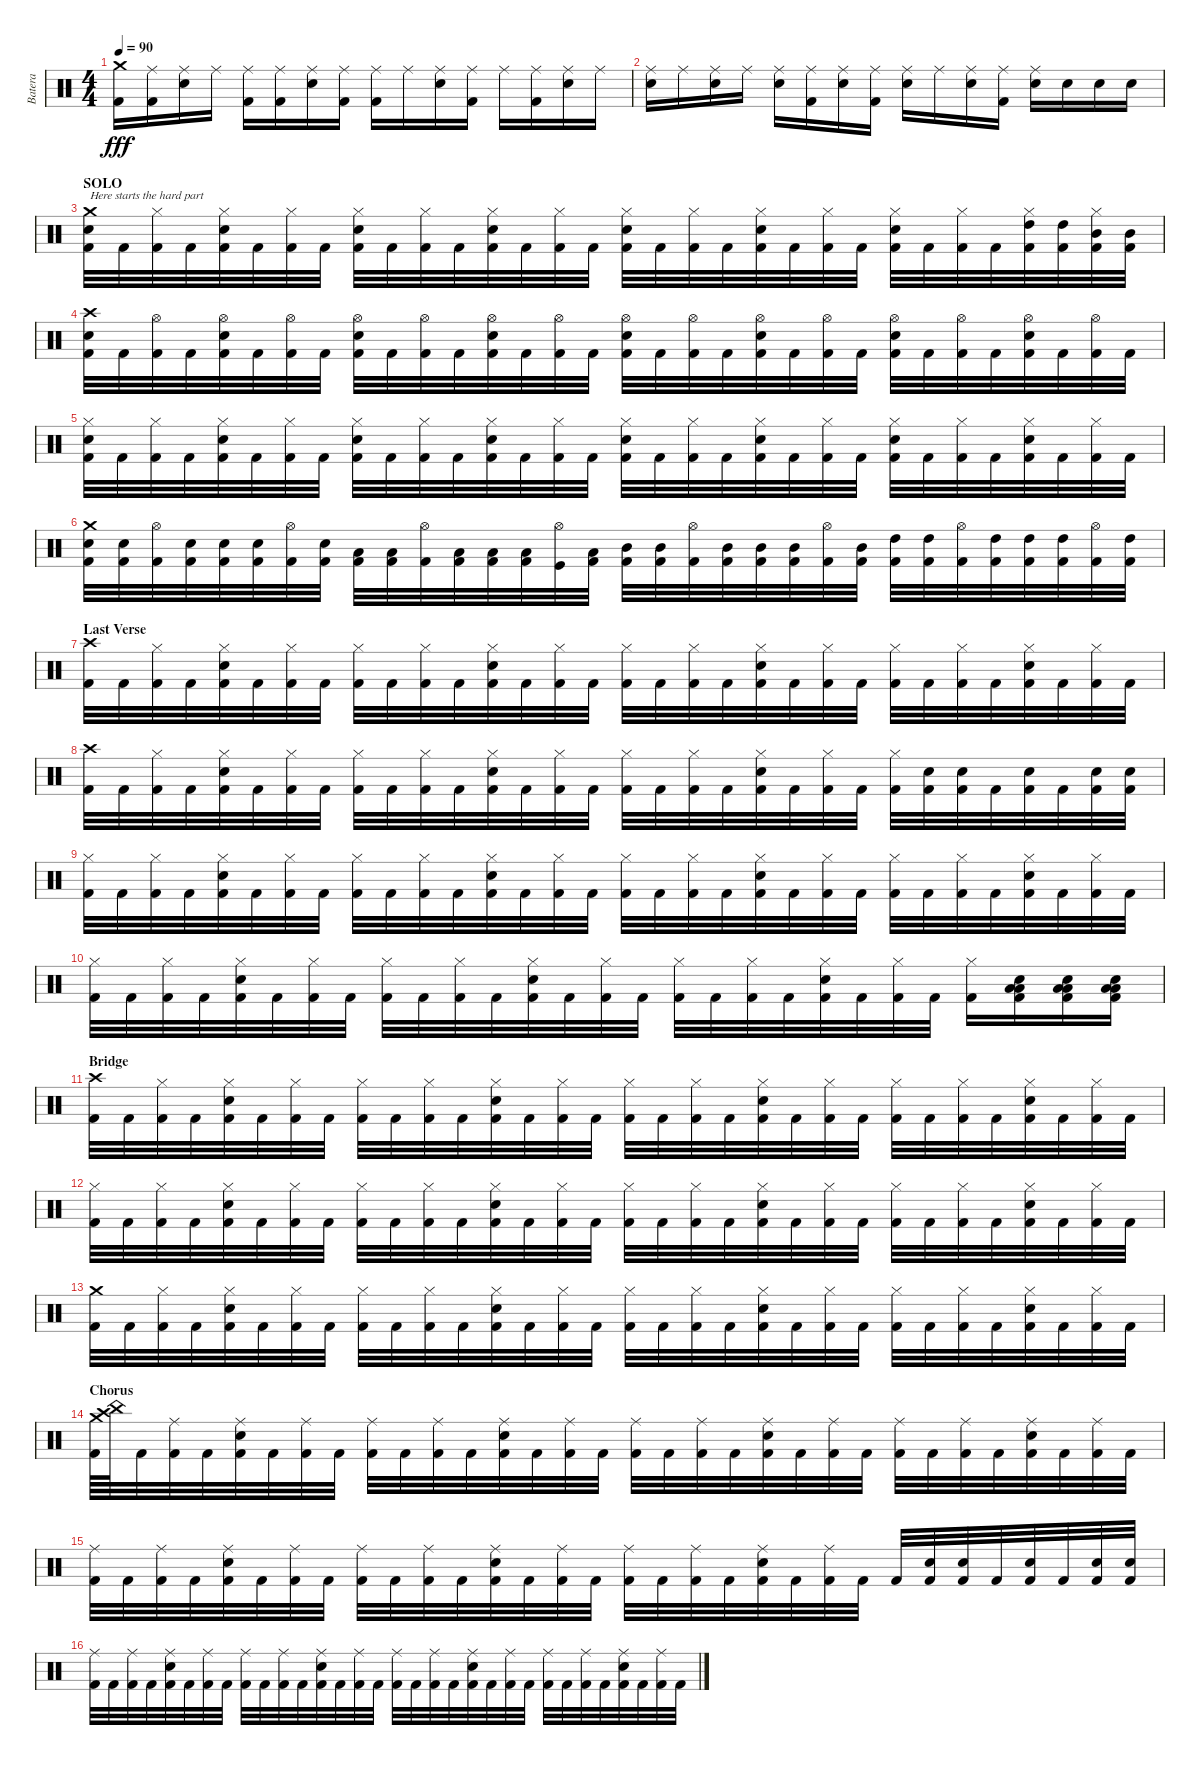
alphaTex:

\track ("Batera" "Batera") {instrument percussion}
\staff {score}
\articulation defaults
\ts (4 4)
\tempo 90
\clef neutral
\ks c
("Crash medium (hit)" "Kick (hit) 2").16{dy fff} ("Kick (hit) 2" "Ride (middle)").16 ("Snare (hit) 2" "Ride (middle)").16 "Ride (middle)".16 ("Kick (hit) 2" "Ride (middle)").16 ("Kick (hit) 2" "Ride (middle)").16 ("Snare (hit) 2" "Ride (middle)").16 ("Kick (hit) 2" "Ride (middle)").16 ("Kick (hit) 2" "Ride (middle)").16 "Ride (middle)".16 ("Snare (hit) 2" "Ride (middle)").16 ("Kick (hit) 2" "Ride (middle)").16 "Ride (middle)".16 ("Kick (hit) 2" "Ride (middle)").16 ("Snare (hit) 2" "Ride (middle)").16 "Ride (middle)".16 |
("Snare (hit) 2" "Ride (middle)").16 "Ride (middle)".16 ("Snare (hit) 2" "Ride (middle)").16 "Ride (middle)".16 ("Snare (hit) 2" "Ride (middle)").16 ("Kick (hit) 2" "Ride (middle)").16 ("Snare (hit) 2" "Ride (middle)").16 ("Kick (hit) 2" "Ride (middle)").16 ("Snare (hit) 2" "Ride (middle)").16 "Ride (middle)".16 ("Snare (hit) 2" "Ride (middle)").16 ("Kick (hit) 2" "Ride (middle)").16 ("Snare (hit) 2" "Ride (middle)").16 "Snare (hit) 2".16 "Snare (hit) 2".16 "Snare (hit) 2".16 |
\section ("" "SOLO")
("Crash medium (hit)" "Snare (hit) 2" "Kick (hit) 2").32{txt "Here starts the hard part"} "Kick (hit) 2".32 ("Kick (hit) 2" "Hi-Hat (closed)").32 "Kick (hit) 2".32 ("Snare (hit) 2" "Kick (hit) 2" "Hi-Hat (closed)").32 "Kick (hit) 2".32 ("Kick (hit) 2" "Hi-Hat (closed)").32 "Kick (hit) 2".32 ("Snare (hit) 2" "Kick (hit) 2" "Hi-Hat (closed)").32 "Kick (hit) 2".32 ("Kick (hit) 2" "Hi-Hat (closed)").32 "Kick (hit) 2".32 ("Snare (hit) 2" "Kick (hit) 2" "Hi-Hat (closed)").32 "Kick (hit) 2".32 ("Kick (hit) 2" "Hi-Hat (closed)").32 "Kick (hit) 2".32 ("Snare (hit) 2" "Kick (hit) 2" "Hi-Hat (closed)").32 "Kick (hit) 2".32 ("Kick (hit) 2" "Hi-Hat (closed)").32 "Kick (hit) 2".32 ("Snare (hit) 2" "Kick (hit) 2" "Hi-Hat (closed)").32 "Kick (hit) 2".32 ("Kick (hit) 2" "Hi-Hat (closed)").32 "Kick (hit) 2".32 ("Snare (hit) 2" "Kick (hit) 2" "Hi-Hat (closed)").32 "Kick (hit) 2".32 ("Kick (hit) 2" "Hi-Hat (closed)").32 "Kick (hit) 2".32 ("High Tom (hit)" "Kick (hit) 2" "Hi-Hat (closed)").32 ("High Tom (hit)" "Kick (hit) 2").32 ("Mid Tom (hit)" "Kick (hit) 2" "Hi-Hat (closed)").32 ("Mid Tom (hit)" "Kick (hit) 2").32 |
("Crash high (hit)" "Snare (hit) 2" "Kick (hit) 2").32 "Kick (hit) 2".32 ("Kick (hit) 2" "Hi-Hat (open)").32 "Kick (hit) 2".32 ("Snare (hit) 2" "Kick (hit) 2" "Hi-Hat (open)").32 "Kick (hit) 2".32 ("Kick (hit) 2" "Hi-Hat (open)").32 "Kick (hit) 2".32 ("Snare (hit) 2" "Kick (hit) 2" "Hi-Hat (open)").32 "Kick (hit) 2".32 ("Kick (hit) 2" "Hi-Hat (open)").32 "Kick (hit) 2".32 ("Snare (hit) 2" "Kick (hit) 2" "Hi-Hat (open)").32 "Kick (hit) 2".32 ("Kick (hit) 2" "Hi-Hat (open)").32 "Kick (hit) 2".32 ("Snare (hit) 2" "Kick (hit) 2" "Hi-Hat (open)").32 "Kick (hit) 2".32 ("Kick (hit) 2" "Hi-Hat (open)").32 "Kick (hit) 2".32 ("Snare (hit) 2" "Kick (hit) 2" "Hi-Hat (open)").32 "Kick (hit) 2".32 ("Kick (hit) 2" "Hi-Hat (open)").32 "Kick (hit) 2".32 ("Snare (hit) 2" "Kick (hit) 2" "Hi-Hat (open)").32 "Kick (hit) 2".32 ("Kick (hit) 2" "Hi-Hat (open)").32 "Kick (hit) 2".32 ("Snare (hit) 2" "Kick (hit) 2" "Hi-Hat (open)").32 "Kick (hit) 2".32 ("Kick (hit) 2" "Hi-Hat (open)").32 "Kick (hit) 2".32 |
("Snare (hit) 2" "Kick (hit) 2" "Hi-Hat (closed)").32 "Kick (hit) 2".32 ("Kick (hit) 2" "Hi-Hat (closed)").32 "Kick (hit) 2".32 ("Snare (hit) 2" "Kick (hit) 2" "Hi-Hat (closed)").32 "Kick (hit) 2".32 ("Kick (hit) 2" "Hi-Hat (closed)").32 "Kick (hit) 2".32 ("Snare (hit) 2" "Kick (hit) 2" "Hi-Hat (closed)").32 "Kick (hit) 2".32 ("Kick (hit) 2" "Hi-Hat (closed)").32 "Kick (hit) 2".32 ("Snare (hit) 2" "Kick (hit) 2" "Hi-Hat (closed)").32 "Kick (hit) 2".32 ("Kick (hit) 2" "Hi-Hat (closed)").32 "Kick (hit) 2".32 ("Snare (hit) 2" "Kick (hit) 2" "Hi-Hat (closed)").32 "Kick (hit) 2".32 ("Kick (hit) 2" "Hi-Hat (closed)").32 "Kick (hit) 2".32 ("Snare (hit) 2" "Kick (hit) 2" "Hi-Hat (closed)").32 "Kick (hit) 2".32 ("Kick (hit) 2" "Hi-Hat (closed)").32 "Kick (hit) 2".32 ("Snare (hit) 2" "Kick (hit) 2" "Hi-Hat (closed)").32 "Kick (hit) 2".32 ("Kick (hit) 2" "Hi-Hat (closed)").32 "Kick (hit) 2".32 ("Snare (hit) 2" "Kick (hit) 2" "Hi-Hat (closed)").32 "Kick (hit) 2".32 ("Kick (hit) 2" "Hi-Hat (closed)").32 "Kick (hit) 2".32 |
("Crash medium (hit)" "Snare (hit) 2" "Kick (hit) 2").32 ("Snare (hit) 2" "Kick (hit) 2").32 ("Kick (hit) 2" "Hi-Hat (open)").32 ("Snare (hit) 2" "Kick (hit) 2").32 ("Snare (hit) 2" "Kick (hit) 2").32 ("Snare (hit) 2" "Kick (hit) 2").32 ("Kick (hit) 2" "Hi-Hat (open)").32 ("Snare (hit) 2" "Kick (hit) 2").32 ("Low Tom (hit)" "Kick (hit) 2").32 ("Low Tom (hit)" "Kick (hit) 2").32 ("Kick (hit) 2" "Hi-Hat (open)").32 ("Low Tom (hit)" "Kick (hit) 2").32 ("Low Tom (hit)" "Kick (hit) 2").32 ("Low Tom (hit)" "Kick (hit) 2").32 ("Kick (hit)" "Hi-Hat (open)").32 ("Low Tom (hit)" "Kick (hit) 2").32 ("Mid Tom (hit)" "Kick (hit) 2").32 ("Mid Tom (hit)" "Kick (hit) 2").32 ("Kick (hit) 2" "Hi-Hat (open)").32 ("Mid Tom (hit)" "Kick (hit) 2").32 ("Mid Tom (hit)" "Kick (hit) 2").32 ("Mid Tom (hit)" "Kick (hit) 2").32 ("Kick (hit) 2" "Hi-Hat (open)").32 ("Mid Tom (hit)" "Kick (hit) 2").32 ("High Tom (hit)" "Kick (hit) 2").32 ("High Tom (hit)" "Kick (hit) 2").32 ("Kick (hit) 2" "Hi-Hat (open)").32 ("High Tom (hit)" "Kick (hit) 2").32 ("High Tom (hit)" "Kick (hit) 2").32 ("High Tom (hit)" "Kick (hit) 2").32 ("Kick (hit) 2" "Hi-Hat (open)").32 ("High Tom (hit)" "Kick (hit) 2").32 |
\section ("" "Last Verse")
("Crash high (hit)" "Kick (hit) 2").32 "Kick (hit) 2".32 ("Kick (hit) 2" "Hi-Hat (closed)").32 "Kick (hit) 2".32 ("Snare (hit) 2" "Kick (hit) 2" "Hi-Hat (closed)").32 "Kick (hit) 2".32 ("Kick (hit) 2" "Hi-Hat (closed)").32 "Kick (hit) 2".32 ("Kick (hit) 2" "Hi-Hat (closed)").32 "Kick (hit) 2".32 ("Kick (hit) 2" "Hi-Hat (closed)").32 "Kick (hit) 2".32 ("Snare (hit) 2" "Kick (hit) 2" "Hi-Hat (closed)").32 "Kick (hit) 2".32 ("Kick (hit) 2" "Hi-Hat (closed)").32 "Kick (hit) 2".32 ("Kick (hit) 2" "Hi-Hat (closed)").32 "Kick (hit) 2".32 ("Kick (hit) 2" "Hi-Hat (closed)").32 "Kick (hit) 2".32 ("Snare (hit) 2" "Kick (hit) 2" "Hi-Hat (closed)").32 "Kick (hit) 2".32 ("Kick (hit) 2" "Hi-Hat (closed)").32 "Kick (hit) 2".32 ("Kick (hit) 2" "Hi-Hat (closed)").32 "Kick (hit) 2".32 ("Kick (hit) 2" "Hi-Hat (closed)").32 "Kick (hit) 2".32 ("Snare (hit) 2" "Kick (hit) 2" "Hi-Hat (closed)").32 "Kick (hit) 2".32 ("Kick (hit) 2" "Hi-Hat (closed)").32 "Kick (hit) 2".32 |
("Crash high (hit)" "Kick (hit) 2").32 "Kick (hit) 2".32 ("Kick (hit) 2" "Hi-Hat (closed)").32 "Kick (hit) 2".32 ("Snare (hit) 2" "Kick (hit) 2" "Hi-Hat (closed)").32 "Kick (hit) 2".32 ("Kick (hit) 2" "Hi-Hat (closed)").32 "Kick (hit) 2".32 ("Kick (hit) 2" "Hi-Hat (closed)").32 "Kick (hit) 2".32 ("Kick (hit) 2" "Hi-Hat (closed)").32 "Kick (hit) 2".32 ("Snare (hit) 2" "Kick (hit) 2" "Hi-Hat (closed)").32 "Kick (hit) 2".32 ("Kick (hit) 2" "Hi-Hat (closed)").32 "Kick (hit) 2".32 ("Kick (hit) 2" "Hi-Hat (closed)").32 "Kick (hit) 2".32 ("Kick (hit) 2" "Hi-Hat (closed)").32 "Kick (hit) 2".32 ("Snare (hit) 2" "Kick (hit) 2" "Hi-Hat (closed)").32 "Kick (hit) 2".32 ("Kick (hit) 2" "Hi-Hat (closed)").32 "Kick (hit) 2".32 ("Kick (hit) 2" "Hi-Hat (closed)").32 ("Snare (hit) 2" "Kick (hit) 2").32 ("Snare (hit) 2" "Kick (hit) 2").32 "Kick (hit) 2".32 ("Snare (hit) 2" "Kick (hit) 2").32 "Kick (hit) 2".32 ("Snare (hit) 2" "Kick (hit) 2").32 ("Snare (hit) 2" "Kick (hit) 2").32 |
("Kick (hit) 2" "Hi-Hat (closed)").32 "Kick (hit) 2".32 ("Kick (hit) 2" "Hi-Hat (closed)").32 "Kick (hit) 2".32 ("Snare (hit) 2" "Kick (hit) 2" "Hi-Hat (closed)").32 "Kick (hit) 2".32 ("Kick (hit) 2" "Hi-Hat (closed)").32 "Kick (hit) 2".32 ("Kick (hit) 2" "Hi-Hat (closed)").32 "Kick (hit) 2".32 ("Kick (hit) 2" "Hi-Hat (closed)").32 "Kick (hit) 2".32 ("Snare (hit) 2" "Kick (hit) 2" "Hi-Hat (closed)").32 "Kick (hit) 2".32 ("Kick (hit) 2" "Hi-Hat (closed)").32 "Kick (hit) 2".32 ("Kick (hit) 2" "Hi-Hat (closed)").32 "Kick (hit) 2".32 ("Kick (hit) 2" "Hi-Hat (closed)").32 "Kick (hit) 2".32 ("Snare (hit) 2" "Kick (hit) 2" "Hi-Hat (closed)").32 "Kick (hit) 2".32 ("Kick (hit) 2" "Hi-Hat (closed)").32 "Kick (hit) 2".32 ("Kick (hit) 2" "Hi-Hat (closed)").32 "Kick (hit) 2".32 ("Kick (hit) 2" "Hi-Hat (closed)").32 "Kick (hit) 2".32 ("Snare (hit) 2" "Kick (hit) 2" "Hi-Hat (closed)").32 "Kick (hit) 2".32 ("Kick (hit) 2" "Hi-Hat (closed)").32 "Kick (hit) 2".32 |
("Kick (hit) 2" "Hi-Hat (closed)").32 "Kick (hit) 2".32 ("Kick (hit) 2" "Hi-Hat (closed)").32 "Kick (hit) 2".32 ("Snare (hit) 2" "Kick (hit) 2" "Hi-Hat (closed)").32 "Kick (hit) 2".32 ("Kick (hit) 2" "Hi-Hat (closed)").32 "Kick (hit) 2".32 ("Kick (hit) 2" "Hi-Hat (closed)").32 "Kick (hit) 2".32 ("Kick (hit) 2" "Hi-Hat (closed)").32 "Kick (hit) 2".32 ("Snare (hit) 2" "Kick (hit) 2" "Hi-Hat (closed)").32 "Kick (hit) 2".32 ("Kick (hit) 2" "Hi-Hat (closed)").32 "Kick (hit) 2".32 ("Kick (hit) 2" "Hi-Hat (closed)").32 "Kick (hit) 2".32 ("Kick (hit) 2" "Hi-Hat (closed)").32 "Kick (hit) 2".32 ("Snare (hit) 2" "Kick (hit) 2" "Hi-Hat (closed)").32 "Kick (hit) 2".32 ("Kick (hit) 2" "Hi-Hat (closed)").32 "Kick (hit) 2".32 ("Kick (hit) 2" "Hi-Hat (closed)").16 ("Low Floor Tom (hit)" "Snare (hit) 2" "Kick (hit) 2" "Low Floor Tom (hit)").16 ("Low Floor Tom (hit)" "Snare (hit) 2" "Kick (hit) 2" "Low Floor Tom (hit)").16 ("Low Floor Tom (hit)" "Snare (hit) 2" "Kick (hit) 2" "Low Floor Tom (hit)").16 |
\section ("" "Bridge")
("Crash high (hit)" "Kick (hit) 2").32 "Kick (hit) 2".32 ("Kick (hit) 2" "Hi-Hat (closed)").32 "Kick (hit) 2".32 ("Snare (hit) 2" "Kick (hit) 2" "Hi-Hat (closed)").32 "Kick (hit) 2".32 ("Kick (hit) 2" "Hi-Hat (closed)").32 "Kick (hit) 2".32 ("Kick (hit) 2" "Hi-Hat (closed)").32 "Kick (hit) 2".32 ("Kick (hit) 2" "Hi-Hat (closed)").32 "Kick (hit) 2".32 ("Snare (hit) 2" "Kick (hit) 2" "Hi-Hat (closed)").32 "Kick (hit) 2".32 ("Kick (hit) 2" "Hi-Hat (closed)").32 "Kick (hit) 2".32 ("Kick (hit) 2" "Hi-Hat (closed)").32 "Kick (hit) 2".32 ("Kick (hit) 2" "Hi-Hat (closed)").32 "Kick (hit) 2".32 ("Snare (hit) 2" "Kick (hit) 2" "Hi-Hat (closed)").32 "Kick (hit) 2".32 ("Kick (hit) 2" "Hi-Hat (closed)").32 "Kick (hit) 2".32 ("Kick (hit) 2" "Hi-Hat (closed)").32 "Kick (hit) 2".32 ("Kick (hit) 2" "Hi-Hat (closed)").32 "Kick (hit) 2".32 ("Snare (hit) 2" "Kick (hit) 2" "Hi-Hat (closed)").32 "Kick (hit) 2".32 ("Kick (hit) 2" "Hi-Hat (closed)").32 "Kick (hit) 2".32 |
("Kick (hit) 2" "Hi-Hat (closed)").32 "Kick (hit) 2".32 ("Kick (hit) 2" "Hi-Hat (closed)").32 "Kick (hit) 2".32 ("Snare (hit) 2" "Kick (hit) 2" "Hi-Hat (closed)").32 "Kick (hit) 2".32 ("Kick (hit) 2" "Hi-Hat (closed)").32 "Kick (hit) 2".32 ("Kick (hit) 2" "Hi-Hat (closed)").32 "Kick (hit) 2".32 ("Kick (hit) 2" "Hi-Hat (closed)").32 "Kick (hit) 2".32 ("Snare (hit) 2" "Kick (hit) 2" "Hi-Hat (closed)").32 "Kick (hit) 2".32 ("Kick (hit) 2" "Hi-Hat (closed)").32 "Kick (hit) 2".32 ("Kick (hit) 2" "Hi-Hat (closed)").32 "Kick (hit) 2".32 ("Kick (hit) 2" "Hi-Hat (closed)").32 "Kick (hit) 2".32 ("Snare (hit) 2" "Kick (hit) 2" "Hi-Hat (closed)").32 "Kick (hit) 2".32 ("Kick (hit) 2" "Hi-Hat (closed)").32 "Kick (hit) 2".32 ("Kick (hit) 2" "Hi-Hat (closed)").32 "Kick (hit) 2".32 ("Kick (hit) 2" "Hi-Hat (closed)").32 "Kick (hit) 2".32 ("Snare (hit) 2" "Kick (hit) 2" "Hi-Hat (closed)").32 "Kick (hit) 2".32 ("Kick (hit) 2" "Hi-Hat (closed)").32 "Kick (hit) 2".32 |
("Crash medium (hit)" "Kick (hit) 2").32 "Kick (hit) 2".32 ("Kick (hit) 2" "Hi-Hat (closed)").32 "Kick (hit) 2".32 ("Snare (hit) 2" "Kick (hit) 2" "Hi-Hat (closed)").32 "Kick (hit) 2".32 ("Kick (hit) 2" "Hi-Hat (closed)").32 "Kick (hit) 2".32 ("Kick (hit) 2" "Hi-Hat (closed)").32 "Kick (hit) 2".32 ("Kick (hit) 2" "Hi-Hat (closed)").32 "Kick (hit) 2".32 ("Snare (hit) 2" "Kick (hit) 2" "Hi-Hat (closed)").32 "Kick (hit) 2".32 ("Kick (hit) 2" "Hi-Hat (closed)").32 "Kick (hit) 2".32 ("Kick (hit) 2" "Hi-Hat (closed)").32 "Kick (hit) 2".32 ("Kick (hit) 2" "Hi-Hat (closed)").32 "Kick (hit) 2".32 ("Snare (hit) 2" "Kick (hit) 2" "Hi-Hat (closed)").32 "Kick (hit) 2".32 ("Kick (hit) 2" "Hi-Hat (closed)").32 "Kick (hit) 2".32 ("Kick (hit) 2" "Hi-Hat (closed)").32 "Kick (hit) 2".32 ("Kick (hit) 2" "Hi-Hat (closed)").32 "Kick (hit) 2".32 ("Snare (hit) 2" "Kick (hit) 2" "Hi-Hat (closed)").32 "Kick (hit) 2".32 ("Kick (hit) 2" "Hi-Hat (closed)").32 "Kick (hit) 2".32 |
\section ("" "Chorus")
("Crash medium (hit)" "Kick (hit) 2").64 ("Crash high (hit)" "China (hit)").64 "Kick (hit) 2".32 ("Kick (hit) 2" "Ride (middle)").32 "Kick (hit) 2".32 ("Snare (hit) 2" "Kick (hit) 2" "Ride (middle)").32 "Kick (hit) 2".32 ("Kick (hit) 2" "Ride (middle)").32 "Kick (hit) 2".32 ("Kick (hit) 2" "Ride (middle)").32 "Kick (hit) 2".32 ("Kick (hit) 2" "Ride (middle)").32 "Kick (hit) 2".32 ("Snare (hit) 2" "Kick (hit) 2" "Ride (middle)").32 "Kick (hit) 2".32 ("Kick (hit) 2" "Ride (middle)").32 "Kick (hit) 2".32 ("Kick (hit) 2" "Ride (middle)").32 "Kick (hit) 2".32 ("Kick (hit) 2" "Ride (middle)").32 "Kick (hit) 2".32 ("Snare (hit) 2" "Kick (hit) 2" "Ride (middle)").32 "Kick (hit) 2".32 ("Kick (hit) 2" "Ride (middle)").32 "Kick (hit) 2".32 ("Kick (hit) 2" "Ride (middle)").32 "Kick (hit) 2".32 ("Kick (hit) 2" "Ride (middle)").32 "Kick (hit) 2".32 ("Snare (hit) 2" "Kick (hit) 2" "Ride (middle)").32 "Kick (hit) 2".32 ("Kick (hit) 2" "Ride (middle)").32 "Kick (hit) 2".32 |
("Kick (hit) 2" "Ride (middle)").32 "Kick (hit) 2".32 ("Kick (hit) 2" "Ride (middle)").32 "Kick (hit) 2".32 ("Snare (hit) 2" "Kick (hit) 2" "Ride (middle)").32 "Kick (hit) 2".32 ("Kick (hit) 2" "Ride (middle)").32 "Kick (hit) 2".32 ("Kick (hit) 2" "Ride (middle)").32 "Kick (hit) 2".32 ("Kick (hit) 2" "Ride (middle)").32 "Kick (hit) 2".32 ("Snare (hit) 2" "Kick (hit) 2" "Ride (middle)").32 "Kick (hit) 2".32 ("Kick (hit) 2" "Ride (middle)").32 "Kick (hit) 2".32 ("Kick (hit) 2" "Ride (middle)").32 "Kick (hit) 2".32 ("Kick (hit) 2" "Ride (middle)").32 "Kick (hit) 2".32 ("Snare (hit) 2" "Kick (hit) 2" "Ride (middle)").32 "Kick (hit) 2".32 ("Kick (hit) 2" "Ride (middle)").32 "Kick (hit) 2".32 "Kick (hit) 2".32 ("Snare (hit) 2" "Kick (hit) 2").32 ("Snare (hit) 2" "Kick (hit) 2").32 "Kick (hit) 2".32 ("Snare (hit) 2" "Kick (hit) 2").32 "Kick (hit) 2".32 ("Snare (hit) 2" "Kick (hit) 2").32 ("Snare (hit) 2" "Kick (hit) 2").32 |
("Kick (hit) 2" "Ride (middle)").32 "Kick (hit) 2".32 ("Kick (hit) 2" "Ride (middle)").32 "Kick (hit) 2".32 ("Snare (hit) 2" "Kick (hit) 2" "Ride (middle)").32 "Kick (hit) 2".32 ("Kick (hit) 2" "Ride (middle)").32 "Kick (hit) 2".32 ("Kick (hit) 2" "Ride (middle)").32 "Kick (hit) 2".32 ("Kick (hit) 2" "Ride (middle)").32 "Kick (hit) 2".32 ("Snare (hit) 2" "Kick (hit) 2" "Ride (middle)").32 "Kick (hit) 2".32 ("Kick (hit) 2" "Ride (middle)").32 "Kick (hit) 2".32 ("Kick (hit) 2" "Ride (middle)").32 "Kick (hit) 2".32 ("Kick (hit) 2" "Ride (middle)").32 "Kick (hit) 2".32 ("Snare (hit) 2" "Kick (hit) 2" "Ride (middle)").32 "Kick (hit) 2".32 ("Kick (hit) 2" "Ride (middle)").32 "Kick (hit) 2".32 ("Kick (hit) 2" "Ride (middle)").32 "Kick (hit) 2".32 ("Kick (hit) 2" "Ride (middle)").32 "Kick (hit) 2".32 ("Snare (hit) 2" "Kick (hit) 2" "Ride (middle)").32 "Kick (hit) 2".32 ("Kick (hit) 2" "Ride (middle)").32 "Kick (hit) 2".32
